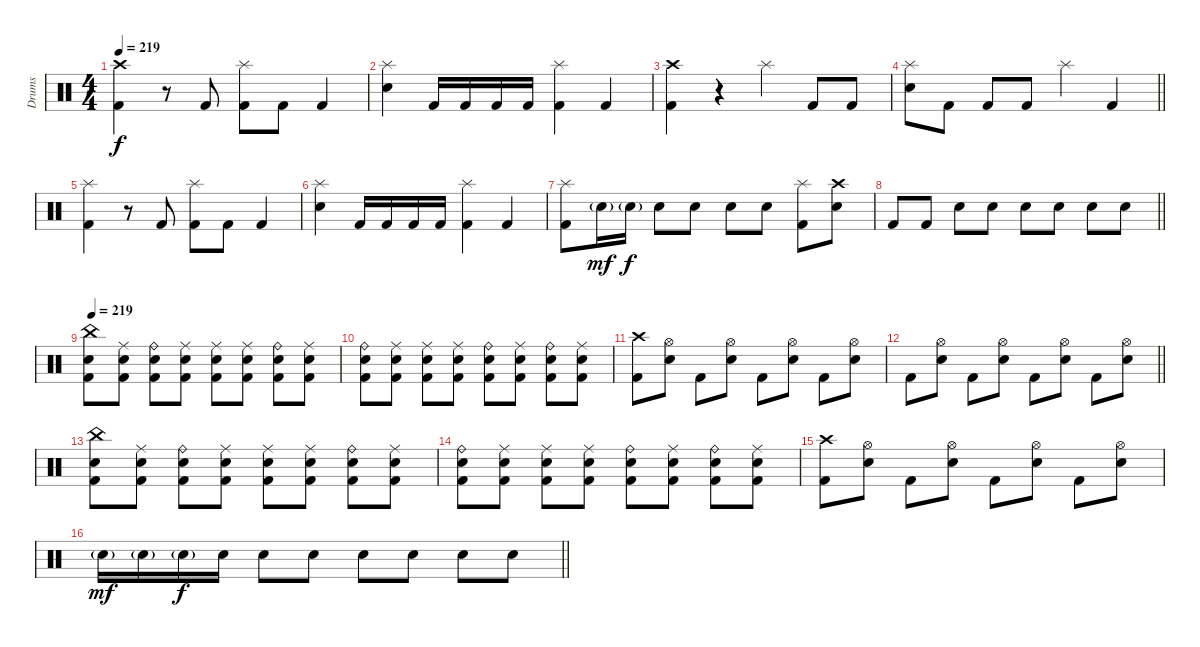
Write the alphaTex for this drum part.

\track ("Drums" "Drums") {instrument percussion}
\staff {score}
\articulation defaults
\ts (4 4)
\section ("" "")
\tempo 219
\clef neutral
\ks c
("Crash high (hit)" "Kick (hit) 2").4{dy f} r.8 "Kick (hit) 2".8 ("Splash (hit)" "Kick (hit) 2").8 "Kick (hit) 2".8 "Kick (hit) 2".4 |
("Splash (hit)" "Electric Snare (hit)").4 "Kick (hit) 2".16 "Kick (hit) 2".16 "Kick (hit) 2".16 "Kick (hit) 2".16 ("Splash (hit)" "Kick (hit) 2").4 "Kick (hit) 2".4 |
("Crash high (hit)" "Kick (hit) 2").4 r.4 "Splash (hit)".4 "Kick (hit) 2".8 "Kick (hit) 2".8 |
\barLineRight lightlight
("Splash (hit)" "Electric Snare (hit)").8 "Kick (hit) 2".8 "Kick (hit) 2".8 "Kick (hit) 2".8 "Splash (hit)".4 "Kick (hit) 2".4 |
("Splash (hit)" "Kick (hit) 2").4 r.8 "Kick (hit) 2".8 ("Splash (hit)" "Kick (hit) 2").8 "Kick (hit) 2".8 "Kick (hit) 2".4 |
("Splash (hit)" "Electric Snare (hit)").4 "Kick (hit) 2".16 "Kick (hit) 2".16 "Kick (hit) 2".16 "Kick (hit) 2".16 ("Splash (hit)" "Kick (hit) 2").4 "Kick (hit) 2".4 |
("Splash (hit)" "Kick (hit) 2").8 "Electric Snare (hit)"{g}.16{dy mf} "Electric Snare (hit)"{g}.16{dy f} "Electric Snare (hit)".8 "Electric Snare (hit)".8 "Electric Snare (hit)".8 "Electric Snare (hit)".8 ("Splash (hit)" "Kick (hit) 2").8 ("Crash high (hit)" "Electric Snare (hit)").8 |
\barLineRight lightlight "Kick (hit) 2".8 "Kick (hit) 2".8 "Electric Snare (hit)".8 "Electric Snare (hit)".8 "Electric Snare (hit)".8 "Electric Snare (hit)".8 "Electric Snare (hit)".8 "Electric Snare (hit)".8
|
\section ("" "")
\tempo 219
("China (hit)" "Electric Snare (hit)" "Kick (hit) 2").8 ("Ride (middle)" "Electric Snare (hit)" "Kick (hit) 2").8 ("Ride (bell)" "Electric Snare (hit)" "Kick (hit) 2").8 ("Ride (middle)" "Electric Snare (hit)" "Kick (hit) 2").8 ("Ride (middle)" "Electric Snare (hit)" "Kick (hit) 2").8 ("Ride (middle)" "Electric Snare (hit)" "Kick (hit) 2").8 ("Ride (bell)" "Electric Snare (hit)" "Kick (hit) 2").8 ("Ride (middle)" "Electric Snare (hit)" "Kick (hit) 2").8 |
("Ride (bell)" "Electric Snare (hit)" "Kick (hit) 2").8 ("Ride (middle)" "Electric Snare (hit)" "Kick (hit) 2").8 ("Ride (middle)" "Electric Snare (hit)" "Kick (hit) 2").8 ("Ride (middle)" "Electric Snare (hit)" "Kick (hit) 2").8 ("Ride (bell)" "Electric Snare (hit)" "Kick (hit) 2").8 ("Ride (middle)" "Electric Snare (hit)" "Kick (hit) 2").8 ("Ride (bell)" "Electric Snare (hit)" "Kick (hit) 2").8 ("Ride (middle)" "Electric Snare (hit)" "Kick (hit) 2").8 |
("Crash high (hit)" "Kick (hit) 2").8 ("Hi-Hat (open)" "Electric Snare (hit)").8 "Kick (hit) 2".8 ("Hi-Hat (open)" "Electric Snare (hit)").8 "Kick (hit) 2".8 ("Hi-Hat (open)" "Electric Snare (hit)").8 "Kick (hit) 2".8 ("Hi-Hat (open)" "Electric Snare (hit)").8 |
\barLineRight lightlight "Kick (hit) 2".8
("Hi-Hat (open)" "Electric Snare (hit)").8 "Kick (hit) 2".8 ("Hi-Hat (open)" "Electric Snare (hit)").8 "Kick (hit) 2".8 ("Hi-Hat (open)" "Electric Snare (hit)").8 "Kick (hit) 2".8 ("Hi-Hat (open)" "Electric Snare (hit)").8 |
("China (hit)" "Electric Snare (hit)" "Kick (hit) 2").8 ("Ride (middle)" "Electric Snare (hit)" "Kick (hit) 2").8 ("Ride (bell)" "Electric Snare (hit)" "Kick (hit) 2").8 ("Ride (middle)" "Electric Snare (hit)" "Kick (hit) 2").8 ("Ride (middle)" "Electric Snare (hit)" "Kick (hit) 2").8 ("Ride (middle)" "Electric Snare (hit)" "Kick (hit) 2").8 ("Ride (bell)" "Electric Snare (hit)" "Kick (hit) 2").8 ("Ride (middle)" "Electric Snare (hit)" "Kick (hit) 2").8 |
("Ride (bell)" "Electric Snare (hit)" "Kick (hit) 2").8 ("Ride (middle)" "Electric Snare (hit)" "Kick (hit) 2").8 ("Ride (middle)" "Electric Snare (hit)" "Kick (hit) 2").8 ("Ride (middle)" "Electric Snare (hit)" "Kick (hit) 2").8 ("Ride (bell)" "Electric Snare (hit)" "Kick (hit) 2").8 ("Ride (middle)" "Electric Snare (hit)" "Kick (hit) 2").8 ("Ride (bell)" "Electric Snare (hit)" "Kick (hit) 2").8 ("Ride (middle)" "Electric Snare (hit)" "Kick (hit) 2").8 |
("Crash high (hit)" "Kick (hit) 2").8 ("Hi-Hat (open)" "Electric Snare (hit)").8 "Kick (hit) 2".8 ("Hi-Hat (open)" "Electric Snare (hit)").8 "Kick (hit) 2".8 ("Hi-Hat (open)" "Electric Snare (hit)").8 "Kick (hit) 2".8 ("Hi-Hat (open)" "Electric Snare (hit)").8 |
\barLineRight lightlight "Electric Snare (hit)"{g}.16{dy mf} "Electric Snare (hit)"{g}.16 "Electric Snare (hit)"{g}.16{dy f} "Electric Snare (hit)".16 "Electric Snare (hit)".8 "Electric Snare (hit)".8 "Electric Snare (hit)".8 "Electric Snare (hit)".8 "Electric Snare (hit)".8 "Electric Snare (hit)".8
